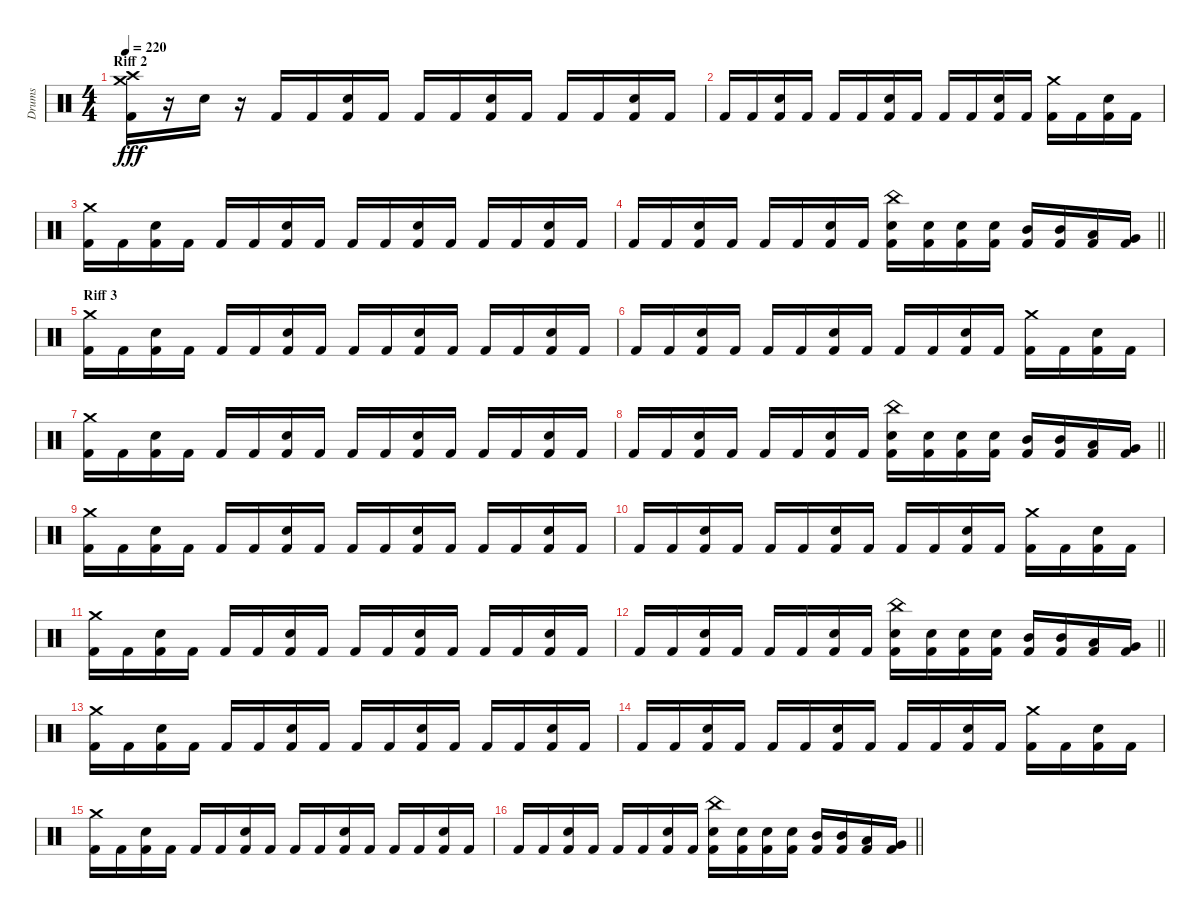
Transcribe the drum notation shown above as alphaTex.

\track ("Drums" "Drums") {instrument percussion}
\staff {score}
\articulation defaults
\ts (4 4)
\section ("" "Riff 2")
\tempo 220
\clef neutral
\ks c
("Crash high (hit)" "Crash medium (hit)" "Kick (hit) 2").16{dy fff} r.16 "Snare (hit) 2".16 r.16 "Kick (hit) 2".16 "Kick (hit) 2".16 ("Kick (hit) 2" "Snare (hit) 2").16 "Kick (hit) 2".16 "Kick (hit) 2".16 "Kick (hit) 2".16 ("Kick (hit) 2" "Snare (hit) 2").16 "Kick (hit) 2".16 "Kick (hit) 2".16 "Kick (hit) 2".16 ("Kick (hit) 2" "Snare (hit) 2").16 "Kick (hit) 2".16 |
"Kick (hit) 2".16 "Kick (hit) 2".16 ("Kick (hit) 2" "Snare (hit) 2").16 "Kick (hit) 2".16 "Kick (hit) 2".16 "Kick (hit) 2".16 ("Kick (hit) 2" "Snare (hit) 2").16 "Kick (hit) 2".16 "Kick (hit) 2".16 "Kick (hit) 2".16 ("Kick (hit) 2" "Snare (hit) 2").16 "Kick (hit) 2".16 ("Crash medium (hit)" "Kick (hit) 2").16 "Kick (hit) 2".16 ("Kick (hit) 2" "Snare (hit) 2").16 "Kick (hit) 2".16 |
("Crash medium (hit)" "Kick (hit) 2").16 "Kick (hit) 2".16 ("Kick (hit) 2" "Snare (hit) 2").16 "Kick (hit) 2".16 "Kick (hit) 2".16 "Kick (hit) 2".16 ("Kick (hit) 2" "Snare (hit) 2").16 "Kick (hit) 2".16 "Kick (hit) 2".16 "Kick (hit) 2".16 ("Kick (hit) 2" "Snare (hit) 2").16 "Kick (hit) 2".16 "Kick (hit) 2".16 "Kick (hit) 2".16 ("Kick (hit) 2" "Snare (hit) 2").16 "Kick (hit) 2".16 |
\barLineRight lightlight "Kick (hit) 2".16 "Kick (hit) 2".16
("Kick (hit) 2" "Snare (hit) 2").16 "Kick (hit) 2".16 "Kick (hit) 2".16 "Kick (hit) 2".16 ("Kick (hit) 2" "Snare (hit) 2").16 "Kick (hit) 2".16 ("China (hit)" "Kick (hit) 2" "Snare (hit) 2").16 ("Kick (hit) 2" "Snare (hit) 2").16 ("Kick (hit) 2" "Snare (hit) 2").16 ("Kick (hit) 2" "Snare (hit) 2").16 ("Kick (hit) 2" "Mid Tom (hit)").16 ("Kick (hit) 2" "Mid Tom (hit)").16 ("Kick (hit) 2" "Low Tom (hit)").16 ("Kick (hit) 2" "Very Low Tom (hit)").16 |
\section ("" "Riff 3")
("Crash medium (hit)" "Kick (hit) 2").16 "Kick (hit) 2".16 ("Kick (hit) 2" "Snare (hit) 2").16 "Kick (hit) 2".16 "Kick (hit) 2".16 "Kick (hit) 2".16 ("Kick (hit) 2" "Snare (hit) 2").16 "Kick (hit) 2".16 "Kick (hit) 2".16 "Kick (hit) 2".16 ("Kick (hit) 2" "Snare (hit) 2").16 "Kick (hit) 2".16 "Kick (hit) 2".16 "Kick (hit) 2".16 ("Kick (hit) 2" "Snare (hit) 2").16 "Kick (hit) 2".16 |
"Kick (hit) 2".16 "Kick (hit) 2".16 ("Kick (hit) 2" "Snare (hit) 2").16 "Kick (hit) 2".16 "Kick (hit) 2".16 "Kick (hit) 2".16 ("Kick (hit) 2" "Snare (hit) 2").16 "Kick (hit) 2".16 "Kick (hit) 2".16 "Kick (hit) 2".16 ("Kick (hit) 2" "Snare (hit) 2").16 "Kick (hit) 2".16 ("Crash medium (hit)" "Kick (hit) 2").16 "Kick (hit) 2".16 ("Kick (hit) 2" "Snare (hit) 2").16 "Kick (hit) 2".16 |
("Crash medium (hit)" "Kick (hit) 2").16 "Kick (hit) 2".16 ("Kick (hit) 2" "Snare (hit) 2").16 "Kick (hit) 2".16 "Kick (hit) 2".16 "Kick (hit) 2".16 ("Kick (hit) 2" "Snare (hit) 2").16 "Kick (hit) 2".16 "Kick (hit) 2".16 "Kick (hit) 2".16 ("Kick (hit) 2" "Snare (hit) 2").16 "Kick (hit) 2".16 "Kick (hit) 2".16 "Kick (hit) 2".16 ("Kick (hit) 2" "Snare (hit) 2").16 "Kick (hit) 2".16 |
\barLineRight lightlight "Kick (hit) 2".16 "Kick (hit) 2".16
("Kick (hit) 2" "Snare (hit) 2").16 "Kick (hit) 2".16 "Kick (hit) 2".16 "Kick (hit) 2".16 ("Kick (hit) 2" "Snare (hit) 2").16 "Kick (hit) 2".16 ("China (hit)" "Kick (hit) 2" "Snare (hit) 2").16 ("Kick (hit) 2" "Snare (hit) 2").16 ("Kick (hit) 2" "Snare (hit) 2").16 ("Kick (hit) 2" "Snare (hit) 2").16 ("Kick (hit) 2" "Mid Tom (hit)").16 ("Kick (hit) 2" "Mid Tom (hit)").16 ("Kick (hit) 2" "Low Tom (hit)").16 ("Kick (hit) 2" "Very Low Tom (hit)").16 |
("Crash medium (hit)" "Kick (hit) 2").16 "Kick (hit) 2".16 ("Kick (hit) 2" "Snare (hit) 2").16 "Kick (hit) 2".16 "Kick (hit) 2".16 "Kick (hit) 2".16 ("Kick (hit) 2" "Snare (hit) 2").16 "Kick (hit) 2".16 "Kick (hit) 2".16 "Kick (hit) 2".16 ("Kick (hit) 2" "Snare (hit) 2").16 "Kick (hit) 2".16 "Kick (hit) 2".16 "Kick (hit) 2".16 ("Kick (hit) 2" "Snare (hit) 2").16 "Kick (hit) 2".16 |
"Kick (hit) 2".16 "Kick (hit) 2".16 ("Kick (hit) 2" "Snare (hit) 2").16 "Kick (hit) 2".16 "Kick (hit) 2".16 "Kick (hit) 2".16 ("Kick (hit) 2" "Snare (hit) 2").16 "Kick (hit) 2".16 "Kick (hit) 2".16 "Kick (hit) 2".16 ("Kick (hit) 2" "Snare (hit) 2").16 "Kick (hit) 2".16 ("Crash medium (hit)" "Kick (hit) 2").16 "Kick (hit) 2".16 ("Kick (hit) 2" "Snare (hit) 2").16 "Kick (hit) 2".16 |
("Crash medium (hit)" "Kick (hit) 2").16 "Kick (hit) 2".16 ("Kick (hit) 2" "Snare (hit) 2").16 "Kick (hit) 2".16 "Kick (hit) 2".16 "Kick (hit) 2".16 ("Kick (hit) 2" "Snare (hit) 2").16 "Kick (hit) 2".16 "Kick (hit) 2".16 "Kick (hit) 2".16 ("Kick (hit) 2" "Snare (hit) 2").16 "Kick (hit) 2".16 "Kick (hit) 2".16 "Kick (hit) 2".16 ("Kick (hit) 2" "Snare (hit) 2").16 "Kick (hit) 2".16 |
\barLineRight lightlight "Kick (hit) 2".16 "Kick (hit) 2".16
("Kick (hit) 2" "Snare (hit) 2").16 "Kick (hit) 2".16 "Kick (hit) 2".16 "Kick (hit) 2".16 ("Kick (hit) 2" "Snare (hit) 2").16 "Kick (hit) 2".16 ("China (hit)" "Kick (hit) 2" "Snare (hit) 2").16 ("Kick (hit) 2" "Snare (hit) 2").16 ("Kick (hit) 2" "Snare (hit) 2").16 ("Kick (hit) 2" "Snare (hit) 2").16 ("Kick (hit) 2" "Mid Tom (hit)").16 ("Kick (hit) 2" "Mid Tom (hit)").16 ("Kick (hit) 2" "Low Tom (hit)").16 ("Kick (hit) 2" "Very Low Tom (hit)").16 |
("Crash medium (hit)" "Kick (hit) 2").16 "Kick (hit) 2".16 ("Kick (hit) 2" "Snare (hit) 2").16 "Kick (hit) 2".16 "Kick (hit) 2".16 "Kick (hit) 2".16 ("Kick (hit) 2" "Snare (hit) 2").16 "Kick (hit) 2".16 "Kick (hit) 2".16 "Kick (hit) 2".16 ("Kick (hit) 2" "Snare (hit) 2").16 "Kick (hit) 2".16 "Kick (hit) 2".16 "Kick (hit) 2".16 ("Kick (hit) 2" "Snare (hit) 2").16 "Kick (hit) 2".16 |
"Kick (hit) 2".16 "Kick (hit) 2".16 ("Kick (hit) 2" "Snare (hit) 2").16 "Kick (hit) 2".16 "Kick (hit) 2".16 "Kick (hit) 2".16 ("Kick (hit) 2" "Snare (hit) 2").16 "Kick (hit) 2".16 "Kick (hit) 2".16 "Kick (hit) 2".16 ("Kick (hit) 2" "Snare (hit) 2").16 "Kick (hit) 2".16 ("Crash medium (hit)" "Kick (hit) 2").16 "Kick (hit) 2".16 ("Kick (hit) 2" "Snare (hit) 2").16 "Kick (hit) 2".16 |
("Crash medium (hit)" "Kick (hit) 2").16 "Kick (hit) 2".16 ("Kick (hit) 2" "Snare (hit) 2").16 "Kick (hit) 2".16 "Kick (hit) 2".16 "Kick (hit) 2".16 ("Kick (hit) 2" "Snare (hit) 2").16 "Kick (hit) 2".16 "Kick (hit) 2".16 "Kick (hit) 2".16 ("Kick (hit) 2" "Snare (hit) 2").16 "Kick (hit) 2".16 "Kick (hit) 2".16 "Kick (hit) 2".16 ("Kick (hit) 2" "Snare (hit) 2").16 "Kick (hit) 2".16 |
\barLineRight lightlight "Kick (hit) 2".16 "Kick (hit) 2".16
("Kick (hit) 2" "Snare (hit) 2").16 "Kick (hit) 2".16 "Kick (hit) 2".16 "Kick (hit) 2".16 ("Kick (hit) 2" "Snare (hit) 2").16 "Kick (hit) 2".16 ("China (hit)" "Kick (hit) 2" "Snare (hit) 2").16 ("Kick (hit) 2" "Snare (hit) 2").16 ("Kick (hit) 2" "Snare (hit) 2").16 ("Kick (hit) 2" "Snare (hit) 2").16 ("Kick (hit) 2" "Mid Tom (hit)").16 ("Kick (hit) 2" "Mid Tom (hit)").16 ("Kick (hit) 2" "Low Tom (hit)").16 ("Kick (hit) 2" "Very Low Tom (hit)").16
